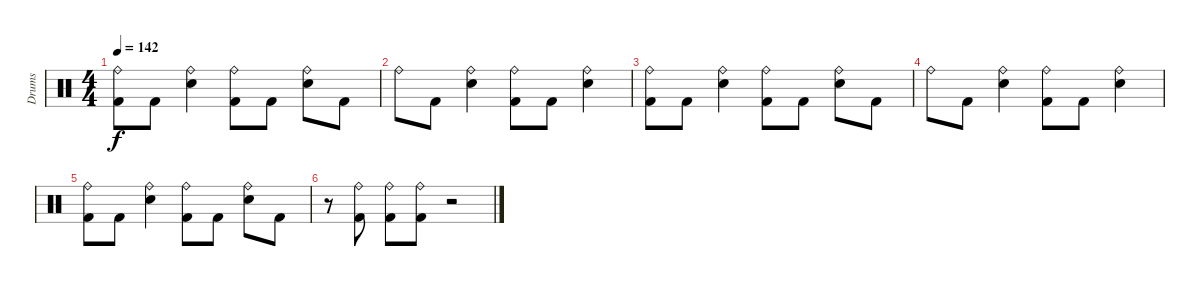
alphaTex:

\track ("Drums" "Drums") {instrument percussion}
\staff {score}
\articulation defaults
\ts (4 4)
\tempo 142
\clef neutral
\ks c
("Kick (hit) 2" "Ride (bell)").8{dy f} "Kick (hit) 2".8 ("Snare (hit) 2" "Ride (bell)").4 ("Kick (hit) 2" "Ride (bell)").8 "Kick (hit) 2".8 ("Snare (hit) 2" "Ride (bell)").8 "Kick (hit) 2".8 |
"Ride (bell)".8 "Kick (hit) 2".8 ("Snare (hit) 2" "Ride (bell)").4 ("Kick (hit) 2" "Ride (bell)").8 "Kick (hit) 2".8 ("Snare (hit) 2" "Ride (bell)").4 |
("Kick (hit) 2" "Ride (bell)").8 "Kick (hit) 2".8 ("Snare (hit) 2" "Ride (bell)").4 ("Kick (hit) 2" "Ride (bell)").8 "Kick (hit) 2".8 ("Snare (hit) 2" "Ride (bell)").8 "Kick (hit) 2".8 |
"Ride (bell)".8 "Kick (hit) 2".8 ("Snare (hit) 2" "Ride (bell)").4 ("Kick (hit) 2" "Ride (bell)").8 "Kick (hit) 2".8 ("Snare (hit) 2" "Ride (bell)").4 |
("Kick (hit) 2" "Ride (bell)").8 "Kick (hit) 2".8 ("Snare (hit) 2" "Ride (bell)").4 ("Kick (hit) 2" "Ride (bell)").8 "Kick (hit) 2".8 ("Snare (hit) 2" "Ride (bell)").8 "Kick (hit) 2".8 |
r.8 ("Kick (hit) 2" "Ride (bell)").8 ("Kick (hit) 2" "Ride (bell)").8 ("Kick (hit) 2" "Ride (bell)").8 r.2
